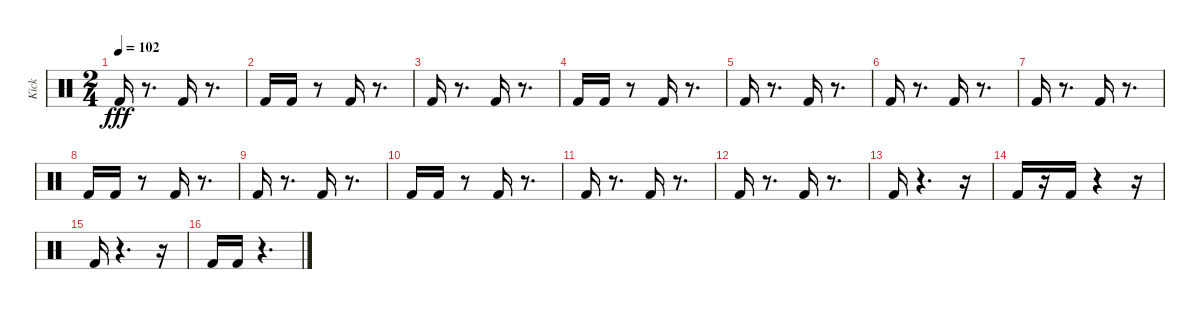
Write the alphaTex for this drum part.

\track ("Kick" "Kick") {instrument percussion}
\staff {score}
\articulation defaults
\ts (2 4)
\tempo 102
\clef neutral
\ks c "Kick (hit) 2".16{dy fff}
r.8{d} "Kick (hit) 2".16 r.8{d} |
"Kick (hit) 2".16 "Kick (hit) 2".16 r.8 "Kick (hit) 2".16 r.8{d} |
"Kick (hit) 2".16 r.8{d} "Kick (hit) 2".16 r.8{d} |
"Kick (hit) 2".16 "Kick (hit) 2".16 r.8 "Kick (hit) 2".16 r.8{d} |
"Kick (hit) 2".16 r.8{d} "Kick (hit) 2".16 r.8{d} |
"Kick (hit) 2".16 r.8{d} "Kick (hit) 2".16 r.8{d} |
"Kick (hit) 2".16 r.8{d} "Kick (hit) 2".16 r.8{d} |
"Kick (hit) 2".16 "Kick (hit) 2".16 r.8 "Kick (hit) 2".16 r.8{d} |
"Kick (hit) 2".16 r.8{d} "Kick (hit) 2".16 r.8{d} |
"Kick (hit) 2".16 "Kick (hit) 2".16 r.8 "Kick (hit) 2".16 r.8{d} |
"Kick (hit) 2".16 r.8{d} "Kick (hit) 2".16 r.8{d} |
"Kick (hit) 2".16 r.8{d} "Kick (hit) 2".16 r.8{d} |
"Kick (hit) 2".16 r.4{d} r.16 |
"Kick (hit) 2".16 r.16 "Kick (hit) 2".16 r.4 r.16 |
"Kick (hit) 2".16 r.4{d} r.16 |
"Kick (hit) 2".16 "Kick (hit) 2".16 r.4{d}
